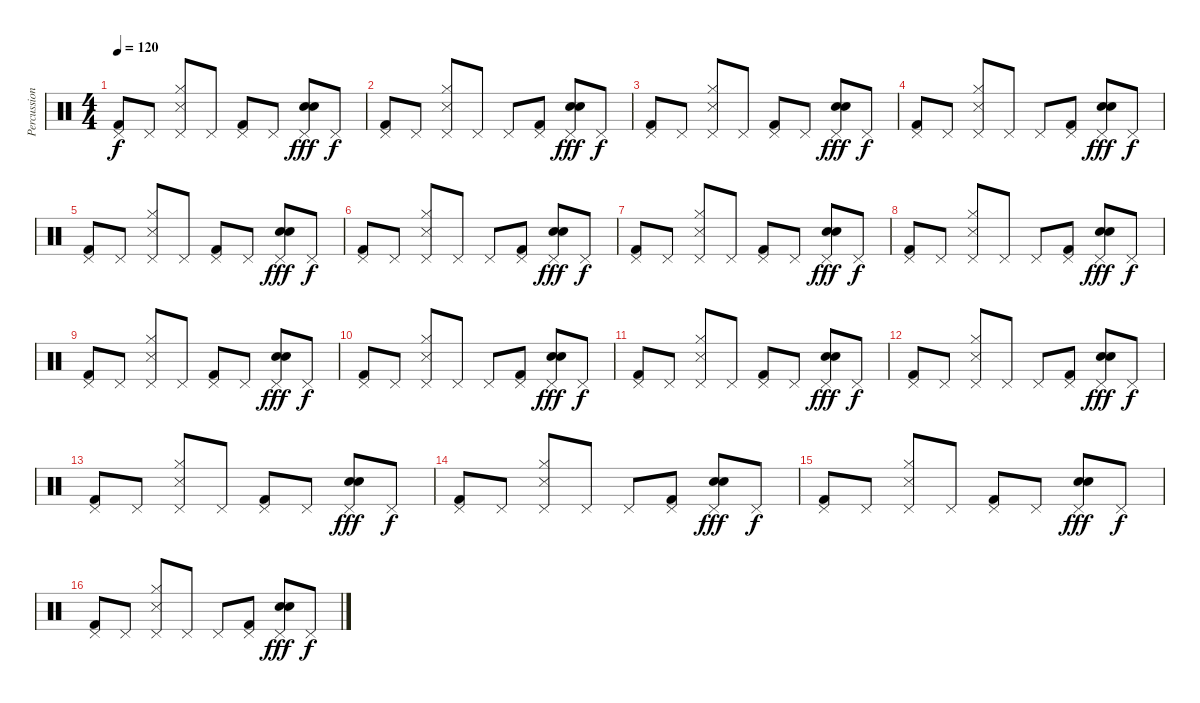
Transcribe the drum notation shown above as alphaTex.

\track ("Percussion" "Percussion") {instrument percussion}
\staff {score}
\articulation defaults
\ts (4 4)
\tempo 120
\clef neutral
\ks c
("Pedal Hi-Hat (hit)" "Kick (hit) 2").8{dy f} "Pedal Hi-Hat (hit)".8 ("Pedal Hi-Hat (hit)" "Hi-Hat (closed)" "Snare (side stick) 3").8 "Pedal Hi-Hat (hit)".8 ("Pedal Hi-Hat (hit)" "Kick (hit) 2").8 "Pedal Hi-Hat (hit)".8 ("Pedal Hi-Hat (hit)" "Hand Clap (hit)" "Hand Clap (hit)").8{dy fff} "Pedal Hi-Hat (hit)".8{dy f} |
("Pedal Hi-Hat (hit)" "Kick (hit) 2").8 "Pedal Hi-Hat (hit)".8 ("Pedal Hi-Hat (hit)" "Hi-Hat (closed)" "Snare (side stick) 3").8 "Pedal Hi-Hat (hit)".8 "Pedal Hi-Hat (hit)".8 ("Pedal Hi-Hat (hit)" "Kick (hit) 2").8 ("Pedal Hi-Hat (hit)" "Hand Clap (hit)" "Hand Clap (hit)").8{dy fff} "Pedal Hi-Hat (hit)".8{dy f} |
("Pedal Hi-Hat (hit)" "Kick (hit) 2").8 "Pedal Hi-Hat (hit)".8 ("Pedal Hi-Hat (hit)" "Hi-Hat (closed)" "Snare (side stick) 3").8 "Pedal Hi-Hat (hit)".8 ("Pedal Hi-Hat (hit)" "Kick (hit) 2").8 "Pedal Hi-Hat (hit)".8 ("Pedal Hi-Hat (hit)" "Hand Clap (hit)" "Hand Clap (hit)").8{dy fff} "Pedal Hi-Hat (hit)".8{dy f} |
("Pedal Hi-Hat (hit)" "Kick (hit) 2").8 "Pedal Hi-Hat (hit)".8 ("Pedal Hi-Hat (hit)" "Hi-Hat (closed)" "Snare (side stick) 3").8 "Pedal Hi-Hat (hit)".8 "Pedal Hi-Hat (hit)".8 ("Pedal Hi-Hat (hit)" "Kick (hit) 2").8 ("Pedal Hi-Hat (hit)" "Hand Clap (hit)" "Hand Clap (hit)").8{dy fff} "Pedal Hi-Hat (hit)".8{dy f} |
("Pedal Hi-Hat (hit)" "Kick (hit) 2").8 "Pedal Hi-Hat (hit)".8 ("Pedal Hi-Hat (hit)" "Hi-Hat (closed)" "Snare (side stick) 3").8 "Pedal Hi-Hat (hit)".8 ("Pedal Hi-Hat (hit)" "Kick (hit) 2").8 "Pedal Hi-Hat (hit)".8 ("Pedal Hi-Hat (hit)" "Hand Clap (hit)" "Hand Clap (hit)").8{dy fff} "Pedal Hi-Hat (hit)".8{dy f} |
("Pedal Hi-Hat (hit)" "Kick (hit) 2").8 "Pedal Hi-Hat (hit)".8 ("Pedal Hi-Hat (hit)" "Hi-Hat (closed)" "Snare (side stick) 3").8 "Pedal Hi-Hat (hit)".8 "Pedal Hi-Hat (hit)".8 ("Pedal Hi-Hat (hit)" "Kick (hit) 2").8 ("Pedal Hi-Hat (hit)" "Hand Clap (hit)" "Hand Clap (hit)").8{dy fff} "Pedal Hi-Hat (hit)".8{dy f} |
("Pedal Hi-Hat (hit)" "Kick (hit) 2").8 "Pedal Hi-Hat (hit)".8 ("Pedal Hi-Hat (hit)" "Hi-Hat (closed)" "Snare (side stick) 3").8 "Pedal Hi-Hat (hit)".8 ("Pedal Hi-Hat (hit)" "Kick (hit) 2").8 "Pedal Hi-Hat (hit)".8 ("Pedal Hi-Hat (hit)" "Hand Clap (hit)" "Hand Clap (hit)").8{dy fff} "Pedal Hi-Hat (hit)".8{dy f} |
("Pedal Hi-Hat (hit)" "Kick (hit) 2").8 "Pedal Hi-Hat (hit)".8 ("Pedal Hi-Hat (hit)" "Hi-Hat (closed)" "Snare (side stick) 3").8 "Pedal Hi-Hat (hit)".8 "Pedal Hi-Hat (hit)".8 ("Pedal Hi-Hat (hit)" "Kick (hit) 2").8 ("Pedal Hi-Hat (hit)" "Hand Clap (hit)" "Hand Clap (hit)").8{dy fff} "Pedal Hi-Hat (hit)".8{dy f} |
("Pedal Hi-Hat (hit)" "Kick (hit) 2").8 "Pedal Hi-Hat (hit)".8 ("Pedal Hi-Hat (hit)" "Hi-Hat (closed)" "Snare (side stick) 3").8 "Pedal Hi-Hat (hit)".8 ("Pedal Hi-Hat (hit)" "Kick (hit) 2").8 "Pedal Hi-Hat (hit)".8 ("Pedal Hi-Hat (hit)" "Hand Clap (hit)" "Hand Clap (hit)").8{dy fff} "Pedal Hi-Hat (hit)".8{dy f} |
("Pedal Hi-Hat (hit)" "Kick (hit) 2").8 "Pedal Hi-Hat (hit)".8 ("Pedal Hi-Hat (hit)" "Hi-Hat (closed)" "Snare (side stick) 3").8 "Pedal Hi-Hat (hit)".8 "Pedal Hi-Hat (hit)".8 ("Pedal Hi-Hat (hit)" "Kick (hit) 2").8 ("Pedal Hi-Hat (hit)" "Hand Clap (hit)" "Hand Clap (hit)").8{dy fff} "Pedal Hi-Hat (hit)".8{dy f} |
("Pedal Hi-Hat (hit)" "Kick (hit) 2").8 "Pedal Hi-Hat (hit)".8 ("Pedal Hi-Hat (hit)" "Hi-Hat (closed)" "Snare (side stick) 3").8 "Pedal Hi-Hat (hit)".8 ("Pedal Hi-Hat (hit)" "Kick (hit) 2").8 "Pedal Hi-Hat (hit)".8 ("Pedal Hi-Hat (hit)" "Hand Clap (hit)" "Hand Clap (hit)").8{dy fff} "Pedal Hi-Hat (hit)".8{dy f} |
("Pedal Hi-Hat (hit)" "Kick (hit) 2").8 "Pedal Hi-Hat (hit)".8 ("Pedal Hi-Hat (hit)" "Hi-Hat (closed)" "Snare (side stick) 3").8 "Pedal Hi-Hat (hit)".8 "Pedal Hi-Hat (hit)".8 ("Pedal Hi-Hat (hit)" "Kick (hit) 2").8 ("Pedal Hi-Hat (hit)" "Hand Clap (hit)" "Hand Clap (hit)").8{dy fff} "Pedal Hi-Hat (hit)".8{dy f} |
("Pedal Hi-Hat (hit)" "Kick (hit) 2").8 "Pedal Hi-Hat (hit)".8 ("Pedal Hi-Hat (hit)" "Hi-Hat (closed)" "Snare (side stick) 3").8 "Pedal Hi-Hat (hit)".8 ("Pedal Hi-Hat (hit)" "Kick (hit) 2").8 "Pedal Hi-Hat (hit)".8 ("Pedal Hi-Hat (hit)" "Hand Clap (hit)" "Hand Clap (hit)").8{dy fff} "Pedal Hi-Hat (hit)".8{dy f} |
("Pedal Hi-Hat (hit)" "Kick (hit) 2").8 "Pedal Hi-Hat (hit)".8 ("Pedal Hi-Hat (hit)" "Hi-Hat (closed)" "Snare (side stick) 3").8 "Pedal Hi-Hat (hit)".8 "Pedal Hi-Hat (hit)".8 ("Pedal Hi-Hat (hit)" "Kick (hit) 2").8 ("Pedal Hi-Hat (hit)" "Hand Clap (hit)" "Hand Clap (hit)").8{dy fff} "Pedal Hi-Hat (hit)".8{dy f} |
("Pedal Hi-Hat (hit)" "Kick (hit) 2").8 "Pedal Hi-Hat (hit)".8 ("Pedal Hi-Hat (hit)" "Hi-Hat (closed)" "Snare (side stick) 3").8 "Pedal Hi-Hat (hit)".8 ("Pedal Hi-Hat (hit)" "Kick (hit) 2").8 "Pedal Hi-Hat (hit)".8 ("Pedal Hi-Hat (hit)" "Hand Clap (hit)" "Hand Clap (hit)").8{dy fff} "Pedal Hi-Hat (hit)".8{dy f} |
("Pedal Hi-Hat (hit)" "Kick (hit) 2").8 "Pedal Hi-Hat (hit)".8 ("Pedal Hi-Hat (hit)" "Hi-Hat (closed)" "Snare (side stick) 3").8 "Pedal Hi-Hat (hit)".8 "Pedal Hi-Hat (hit)".8 ("Pedal Hi-Hat (hit)" "Kick (hit) 2").8 ("Pedal Hi-Hat (hit)" "Hand Clap (hit)" "Hand Clap (hit)").8{dy fff} "Pedal Hi-Hat (hit)".8{dy f}
